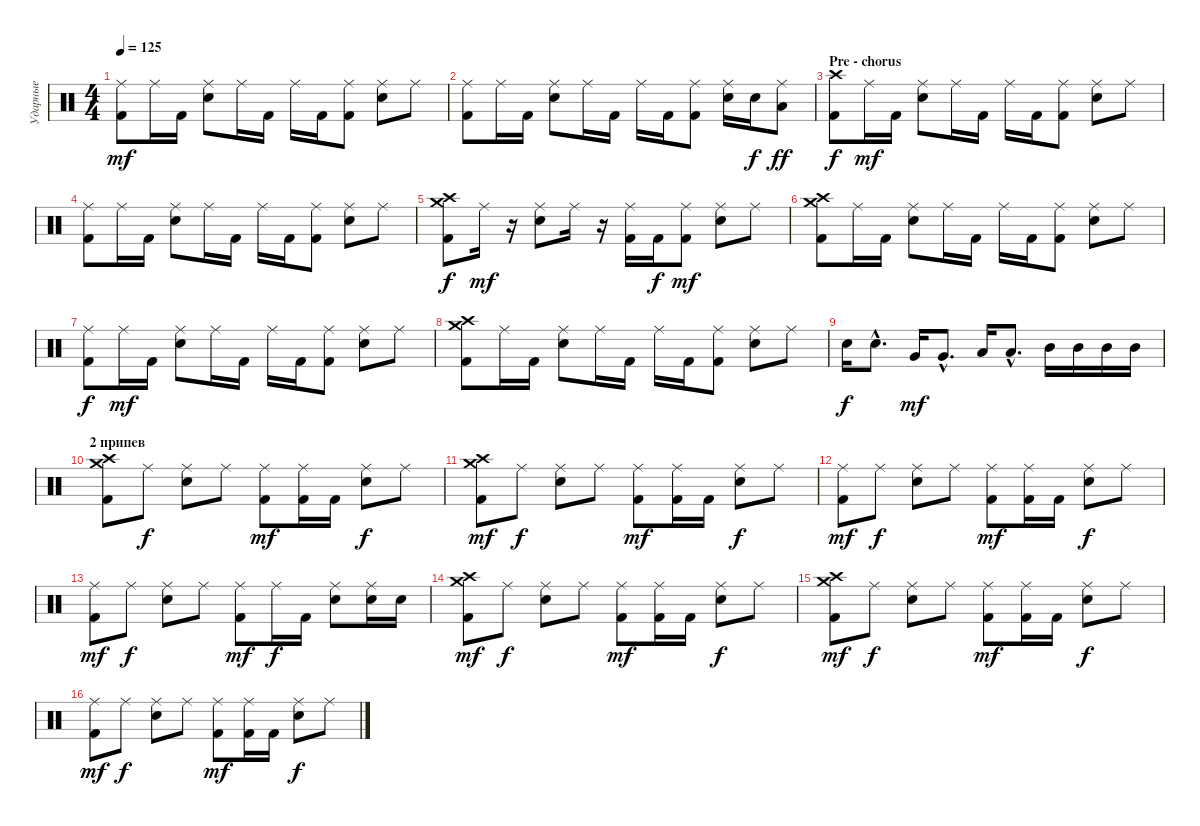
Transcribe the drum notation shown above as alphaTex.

\track ("Ударные" "Ударные") {instrument percussion}
\staff {score}
\articulation defaults
\ts (4 4)
\tempo 125
\clef neutral
\ks c
("Ride (middle)" "Kick (hit) 2").8{dy mf} "Ride (middle)".16 "Kick (hit) 2".16 ("Ride (middle)" "Snare (hit) 2").8 "Ride (middle)".16 "Kick (hit) 2".16 "Ride (middle)".16 "Kick (hit) 2".16 ("Ride (middle)" "Kick (hit) 2").8 ("Ride (middle)" "Snare (hit) 2").8 "Ride (middle)".8 |
("Ride (middle)" "Kick (hit) 2").8 "Ride (middle)".16 "Kick (hit) 2".16 ("Ride (middle)" "Snare (hit) 2").8 "Ride (middle)".16 "Kick (hit) 2".16 "Ride (middle)".16 "Kick (hit) 2".16 ("Ride (middle)" "Kick (hit) 2").8 ("Ride (middle)" "Snare (hit) 2").16 "Snare (hit) 2".16{dy f} ("Ride (middle)" "Low Floor Tom (hit)").8{dy ff} |
\section ("" "Pre - chorus")
("Crash high (hit)" "Kick (hit) 2").8{dy f} "Ride (middle)".16{dy mf} "Kick (hit) 2".16 ("Ride (middle)" "Snare (hit) 2").8 "Ride (middle)".16 "Kick (hit) 2".16 "Ride (middle)".16 "Kick (hit) 2".16 ("Ride (middle)" "Kick (hit) 2").8 ("Ride (middle)" "Snare (hit) 2").8 "Ride (middle)".8 |
("Ride (middle)" "Kick (hit) 2").8 "Ride (middle)".16 "Kick (hit) 2".16 ("Ride (middle)" "Snare (hit) 2").8 "Ride (middle)".16 "Kick (hit) 2".16 "Ride (middle)".16 "Kick (hit) 2".16 ("Ride (middle)" "Kick (hit) 2").8 ("Ride (middle)" "Snare (hit) 2").8 "Ride (middle)".8 |
("Crash high (hit)" "Crash medium (hit)" "Kick (hit) 2").8{dy f} "Ride (middle)".16{dy mf} r.16 ("Ride (middle)" "Snare (hit) 2").8 "Ride (middle)".16 r.16 ("Ride (middle)" "Kick (hit) 2").16 "Kick (hit) 2".16{dy f} ("Ride (middle)" "Kick (hit) 2").8{dy mf} ("Ride (middle)" "Snare (hit) 2").8 "Ride (middle)".8 |
("Crash high (hit)" "Crash medium (hit)" "Kick (hit) 2").8 "Ride (middle)".16 "Kick (hit) 2".16 ("Ride (middle)" "Snare (hit) 2").8 "Ride (middle)".16 "Kick (hit) 2".16 "Ride (middle)".16 "Kick (hit) 2".16 ("Ride (middle)" "Kick (hit) 2").8 ("Ride (middle)" "Snare (hit) 2").8 "Ride (middle)".8 |
("Ride (middle)" "Kick (hit) 2").8{dy f} "Ride (middle)".16{dy mf} "Kick (hit) 2".16 ("Ride (middle)" "Snare (hit) 2").8 "Ride (middle)".16 "Kick (hit) 2".16 "Ride (middle)".16 "Kick (hit) 2".16 ("Ride (middle)" "Kick (hit) 2").8 ("Ride (middle)" "Snare (hit) 2").8 "Ride (middle)".8 |
("Crash high (hit)" "Crash medium (hit)" "Kick (hit) 2").8 "Ride (middle)".16 "Kick (hit) 2".16 ("Ride (middle)" "Snare (hit) 2").8 "Ride (middle)".16 "Kick (hit) 2".16 "Ride (middle)".16 "Kick (hit) 2".16 ("Ride (middle)" "Kick (hit) 2").8 ("Ride (middle)" "Snare (hit) 2").8 "Ride (middle)".8 |
"Snare (hit) 2".16{dy f} "Snare (hit) 2"{hac}.8{d} "Very Low Tom (hit)".16{dy mf} "Very Low Tom (hit)"{hac}.8{d} "Low Tom (hit)".16 "Low Tom (hit)"{hac}.8{d} "Mid Tom (hit)".16 "Mid Tom (hit)".16 "Mid Tom (hit)".16 "Mid Tom (hit)".16 |
\section ("" "2 припев")
("Crash high (hit)" "Crash medium (hit)" "Kick (hit) 2").8 "Ride (middle)".8{dy f} ("Ride (middle)" "Snare (hit) 2").8 "Ride (middle)".8 ("Ride (middle)" "Kick (hit) 2").8{dy mf} ("Ride (middle)" "Kick (hit) 2").16 "Kick (hit) 2".16 ("Ride (middle)" "Snare (hit) 2").8{dy f} "Ride (middle)".8 |
("Crash high (hit)" "Crash medium (hit)" "Kick (hit) 2").8{dy mf} "Ride (middle)".8{dy f} ("Ride (middle)" "Snare (hit) 2").8 "Ride (middle)".8 ("Ride (middle)" "Kick (hit) 2").8{dy mf} ("Ride (middle)" "Kick (hit) 2").16 "Kick (hit) 2".16 ("Ride (middle)" "Snare (hit) 2").8{dy f} "Ride (middle)".8 |
("Ride (middle)" "Kick (hit) 2").8{dy mf} "Ride (middle)".8{dy f} ("Ride (middle)" "Snare (hit) 2").8 "Ride (middle)".8 ("Ride (middle)" "Kick (hit) 2").8{dy mf} ("Ride (middle)" "Kick (hit) 2").16 "Kick (hit) 2".16 ("Ride (middle)" "Snare (hit) 2").8{dy f} "Ride (middle)".8 |
("Ride (middle)" "Kick (hit) 2").8{dy mf} "Ride (middle)".8{dy f} ("Ride (middle)" "Snare (hit) 2").8 "Ride (middle)".8 ("Ride (middle)" "Kick (hit) 2").8{dy mf} "Ride (middle)".16{dy f} "Kick (hit) 2".16 ("Ride (middle)" "Snare (hit) 2").8 ("Ride (middle)" "Snare (hit) 2").16 "Snare (hit) 2".16 |
("Crash high (hit)" "Crash medium (hit)" "Kick (hit) 2").8{dy mf} "Ride (middle)".8{dy f} ("Ride (middle)" "Snare (hit) 2").8 "Ride (middle)".8 ("Ride (middle)" "Kick (hit) 2").8{dy mf} ("Ride (middle)" "Kick (hit) 2").16 "Kick (hit) 2".16 ("Ride (middle)" "Snare (hit) 2").8{dy f} "Ride (middle)".8 |
("Crash high (hit)" "Crash medium (hit)" "Kick (hit) 2").8{dy mf} "Ride (middle)".8{dy f} ("Ride (middle)" "Snare (hit) 2").8 "Ride (middle)".8 ("Ride (middle)" "Kick (hit) 2").8{dy mf} ("Ride (middle)" "Kick (hit) 2").16 "Kick (hit) 2".16 ("Ride (middle)" "Snare (hit) 2").8{dy f} "Ride (middle)".8 |
("Ride (middle)" "Kick (hit) 2").8{dy mf} "Ride (middle)".8{dy f} ("Ride (middle)" "Snare (hit) 2").8 "Ride (middle)".8 ("Ride (middle)" "Kick (hit) 2").8{dy mf} ("Ride (middle)" "Kick (hit) 2").16 "Kick (hit) 2".16 ("Ride (middle)" "Snare (hit) 2").8{dy f} "Ride (middle)".8
